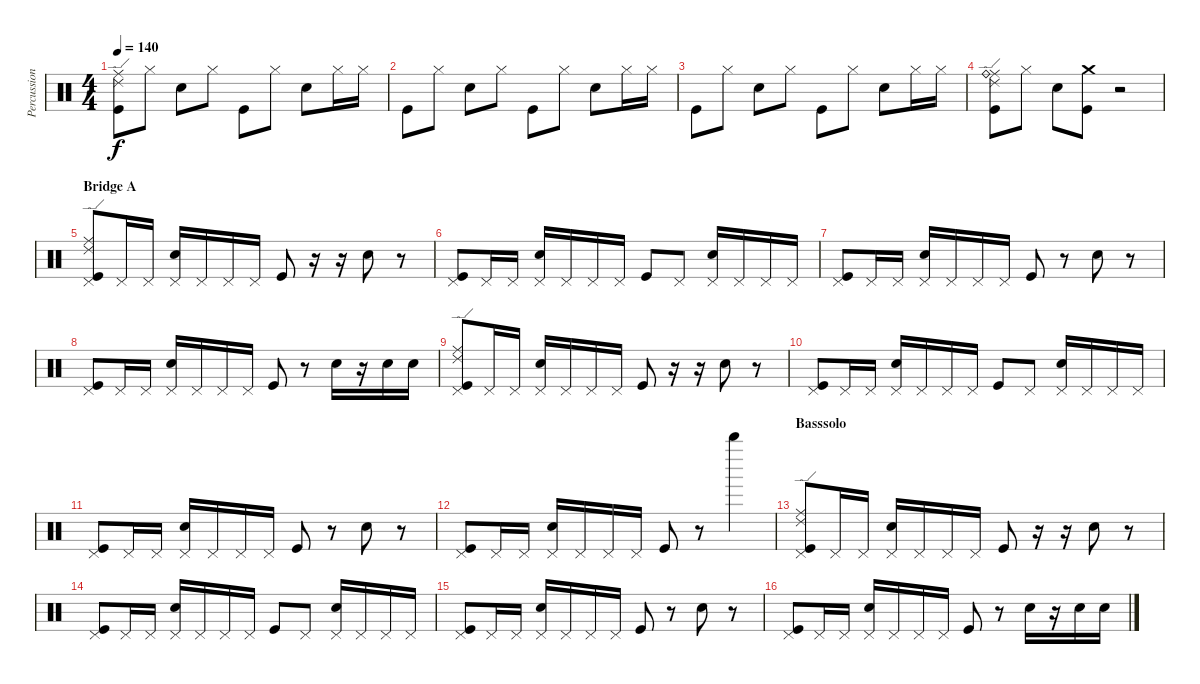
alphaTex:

\track ("Percussion" "Percussion") {instrument percussion}
\staff {score}
\articulation defaults
\ts (4 4)
\tempo 140
\clef neutral
\ks c
("Ride (middle)" "Ride (edge) 2" "Kick (hit)").8{dy f} "Hi-Hat (closed)".8 "Snare (hit) 2".8 "Hi-Hat (closed)".8 "Kick (hit)".8 "Hi-Hat (closed)".8 "Snare (hit) 2".8 "Hi-Hat (closed)".16 "Hi-Hat (closed)".16 |
"Kick (hit)".8 "Hi-Hat (closed)".8 "Snare (hit) 2".8 "Hi-Hat (closed)".8 "Kick (hit)".8 "Hi-Hat (closed)".8 "Snare (hit) 2".8 "Hi-Hat (closed)".16 "Hi-Hat (closed)".16 |
"Kick (hit)".8 "Hi-Hat (closed)".8 "Snare (hit) 2".8 "Hi-Hat (closed)".8 "Kick (hit)".8 "Hi-Hat (closed)".8 "Snare (hit) 2".8 "Hi-Hat (closed)".16 "Hi-Hat (closed)".16 |
("Ride (edge) 2" "Ride (middle)" "Ride (bell)" "Kick (hit)").8 "Hi-Hat (closed)".8 "Snare (hit) 2".8 ("Crash medium (hit)" "Kick (hit)").8 r.2 |
\section ("" "Bridge A")
("Ride (middle)" "Ride (edge) 2" "Pedal Hi-Hat (hit)" "Kick (hit)").8 "Pedal Hi-Hat (hit)".16 "Pedal Hi-Hat (hit)".16 ("Pedal Hi-Hat (hit)" "Snare (hit) 2").16 "Pedal Hi-Hat (hit)".16 "Pedal Hi-Hat (hit)".16 "Pedal Hi-Hat (hit)".16 "Kick (hit)".8 r.16 r.16 "Snare (hit) 2".8 r.8 |
("Pedal Hi-Hat (hit)" "Kick (hit)").8 "Pedal Hi-Hat (hit)".16 "Pedal Hi-Hat (hit)".16 ("Pedal Hi-Hat (hit)" "Snare (hit) 2").16 "Pedal Hi-Hat (hit)".16 "Pedal Hi-Hat (hit)".16 "Pedal Hi-Hat (hit)".16 "Kick (hit)".8 "Pedal Hi-Hat (hit)".8 ("Pedal Hi-Hat (hit)" "Snare (hit) 2").16 "Pedal Hi-Hat (hit)".16 "Pedal Hi-Hat (hit)".16 "Pedal Hi-Hat (hit)".16 |
("Pedal Hi-Hat (hit)" "Kick (hit)").8 "Pedal Hi-Hat (hit)".16 "Pedal Hi-Hat (hit)".16 ("Pedal Hi-Hat (hit)" "Snare (hit) 2").16 "Pedal Hi-Hat (hit)".16 "Pedal Hi-Hat (hit)".16 "Pedal Hi-Hat (hit)".16 "Kick (hit)".8 r.8 "Snare (hit) 2".8 r.8 |
("Pedal Hi-Hat (hit)" "Kick (hit)").8 "Pedal Hi-Hat (hit)".16 "Pedal Hi-Hat (hit)".16 ("Pedal Hi-Hat (hit)" "Snare (hit) 2").16 "Pedal Hi-Hat (hit)".16 "Pedal Hi-Hat (hit)".16 "Pedal Hi-Hat (hit)".16 "Kick (hit)".8 r.8 "Snare (hit) 2".16 r.16 "Snare (hit) 2".16 "Snare (hit) 2".16 |
("Ride (middle)" "Ride (edge) 2" "Pedal Hi-Hat (hit)" "Kick (hit)").8 "Pedal Hi-Hat (hit)".16 "Pedal Hi-Hat (hit)".16 ("Pedal Hi-Hat (hit)" "Snare (hit) 2").16 "Pedal Hi-Hat (hit)".16 "Pedal Hi-Hat (hit)".16 "Pedal Hi-Hat (hit)".16 "Kick (hit)".8 r.16 r.16 "Snare (hit) 2".8 r.8 |
("Pedal Hi-Hat (hit)" "Kick (hit)").8 "Pedal Hi-Hat (hit)".16 "Pedal Hi-Hat (hit)".16 ("Pedal Hi-Hat (hit)" "Snare (hit) 2").16 "Pedal Hi-Hat (hit)".16 "Pedal Hi-Hat (hit)".16 "Pedal Hi-Hat (hit)".16 "Kick (hit)".8 "Pedal Hi-Hat (hit)".8 ("Pedal Hi-Hat (hit)" "Snare (hit) 2").16 "Pedal Hi-Hat (hit)".16 "Pedal Hi-Hat (hit)".16 "Pedal Hi-Hat (hit)".16 |
("Pedal Hi-Hat (hit)" "Kick (hit)").8 "Pedal Hi-Hat (hit)".16 "Pedal Hi-Hat (hit)".16 ("Pedal Hi-Hat (hit)" "Snare (hit) 2").16 "Pedal Hi-Hat (hit)".16 "Pedal Hi-Hat (hit)".16 "Pedal Hi-Hat (hit)".16 "Kick (hit)".8 r.8 "Snare (hit) 2".8 r.8 |
("Pedal Hi-Hat (hit)" "Kick (hit)").8 "Pedal Hi-Hat (hit)".16 "Pedal Hi-Hat (hit)".16 ("Pedal Hi-Hat (hit)" "Snare (hit) 2").16 "Pedal Hi-Hat (hit)".16 "Pedal Hi-Hat (hit)".16 "Pedal Hi-Hat (hit)".16 "Kick (hit)".8 r.8 "Whistle high (hit)".4 |
\section ("" "Basssolo")
("Ride (middle)" "Ride (edge) 2" "Pedal Hi-Hat (hit)" "Kick (hit)").8 "Pedal Hi-Hat (hit)".16 "Pedal Hi-Hat (hit)".16 ("Pedal Hi-Hat (hit)" "Snare (hit) 2").16 "Pedal Hi-Hat (hit)".16 "Pedal Hi-Hat (hit)".16 "Pedal Hi-Hat (hit)".16 "Kick (hit)".8 r.16 r.16 "Snare (hit) 2".8 r.8 |
("Pedal Hi-Hat (hit)" "Kick (hit)").8 "Pedal Hi-Hat (hit)".16 "Pedal Hi-Hat (hit)".16 ("Pedal Hi-Hat (hit)" "Snare (hit) 2").16 "Pedal Hi-Hat (hit)".16 "Pedal Hi-Hat (hit)".16 "Pedal Hi-Hat (hit)".16 "Kick (hit)".8 "Pedal Hi-Hat (hit)".8 ("Pedal Hi-Hat (hit)" "Snare (hit) 2").16 "Pedal Hi-Hat (hit)".16 "Pedal Hi-Hat (hit)".16 "Pedal Hi-Hat (hit)".16 |
("Pedal Hi-Hat (hit)" "Kick (hit)").8 "Pedal Hi-Hat (hit)".16 "Pedal Hi-Hat (hit)".16 ("Pedal Hi-Hat (hit)" "Snare (hit) 2").16 "Pedal Hi-Hat (hit)".16 "Pedal Hi-Hat (hit)".16 "Pedal Hi-Hat (hit)".16 "Kick (hit)".8 r.8 "Snare (hit) 2".8 r.8 |
("Pedal Hi-Hat (hit)" "Kick (hit)").8 "Pedal Hi-Hat (hit)".16 "Pedal Hi-Hat (hit)".16 ("Pedal Hi-Hat (hit)" "Snare (hit) 2").16 "Pedal Hi-Hat (hit)".16 "Pedal Hi-Hat (hit)".16 "Pedal Hi-Hat (hit)".16 "Kick (hit)".8 r.8 "Snare (hit) 2".16 r.16 "Snare (hit) 2".16 "Snare (hit) 2".16
